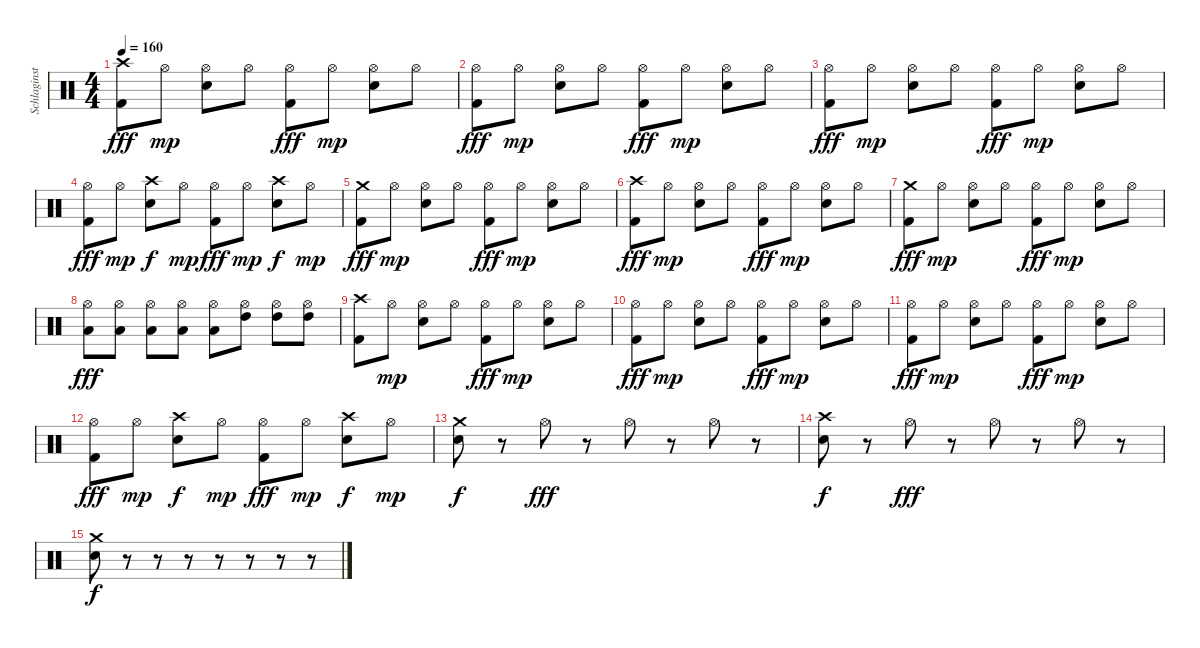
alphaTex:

\track ("Schlaginstrumente - Auswahl" "Schlaginst") {instrument percussion}
\staff {score}
\articulation defaults
\ts (4 4)
\tempo 160
\clef neutral
\ks c
("Crash high (hit)" "Kick (hit) 2").8{dy fff} "Hi-Hat (open)".8{dy mp} ("Hi-Hat (open)" "Electric Snare (hit)").8 "Hi-Hat (open)".8 ("Hi-Hat (open)" "Kick (hit) 2").8{dy fff} "Hi-Hat (open)".8{dy mp} ("Hi-Hat (open)" "Electric Snare (hit)").8 "Hi-Hat (open)".8 |
("Hi-Hat (open)" "Kick (hit) 2").8{dy fff} "Hi-Hat (open)".8{dy mp} ("Hi-Hat (open)" "Electric Snare (hit)").8 "Hi-Hat (open)".8 ("Hi-Hat (open)" "Kick (hit) 2").8{dy fff} "Hi-Hat (open)".8{dy mp} ("Hi-Hat (open)" "Electric Snare (hit)").8 "Hi-Hat (open)".8 |
("Hi-Hat (open)" "Kick (hit) 2").8{dy fff} "Hi-Hat (open)".8{dy mp} ("Hi-Hat (open)" "Electric Snare (hit)").8 "Hi-Hat (open)".8 ("Hi-Hat (open)" "Kick (hit) 2").8{dy fff} "Hi-Hat (open)".8{dy mp} ("Hi-Hat (open)" "Electric Snare (hit)").8 "Hi-Hat (open)".8 |
("Hi-Hat (open)" "Kick (hit) 2").8{dy fff} "Hi-Hat (open)".8{dy mp} ("Crash high (hit)" "Electric Snare (hit)").8{dy f} "Hi-Hat (open)".8{dy mp} ("Hi-Hat (open)" "Kick (hit) 2").8{dy fff} "Hi-Hat (open)".8{dy mp} ("Crash high (hit)" "Electric Snare (hit)").8{dy f} "Hi-Hat (open)".8{dy mp} |
("Crash medium (hit)" "Kick (hit) 2").8{dy fff} "Hi-Hat (open)".8{dy mp} ("Hi-Hat (open)" "Electric Snare (hit)").8 "Hi-Hat (open)".8 ("Hi-Hat (open)" "Kick (hit) 2").8{dy fff} "Hi-Hat (open)".8{dy mp} ("Hi-Hat (open)" "Electric Snare (hit)").8 "Hi-Hat (open)".8 |
("Crash high (hit)" "Kick (hit) 2").8{dy fff} "Hi-Hat (open)".8{dy mp} ("Hi-Hat (open)" "Electric Snare (hit)").8 "Hi-Hat (open)".8 ("Hi-Hat (open)" "Kick (hit) 2").8{dy fff} "Hi-Hat (open)".8{dy mp} ("Hi-Hat (open)" "Electric Snare (hit)").8 "Hi-Hat (open)".8 |
("Crash medium (hit)" "Kick (hit) 2").8{dy fff} "Hi-Hat (open)".8{dy mp} ("Hi-Hat (open)" "Electric Snare (hit)").8 "Hi-Hat (open)".8 ("Hi-Hat (open)" "Kick (hit) 2").8{dy fff} "Hi-Hat (open)".8{dy mp} ("Hi-Hat (open)" "Electric Snare (hit)").8 "Hi-Hat (open)".8 |
("Hi-Hat (open)" "Low Floor Tom (hit)").8{dy fff} ("Hi-Hat (open)" "Low Floor Tom (hit)").8 ("Hi-Hat (open)" "Low Floor Tom (hit)").8 ("Hi-Hat (open)" "Low Tom (hit)").8 ("Hi-Hat (open)" "Low Tom (hit)").8 ("Hi-Hat (open)" "High Tom (hit)").8 ("Hi-Hat (open)" "High Tom (hit)").8 ("Hi-Hat (open)" "High Tom (hit)").8 |
("Crash high (hit)" "Kick (hit) 2").8 "Hi-Hat (open)".8{dy mp} ("Hi-Hat (open)" "Electric Snare (hit)").8 "Hi-Hat (open)".8 ("Hi-Hat (open)" "Kick (hit) 2").8{dy fff} "Hi-Hat (open)".8{dy mp} ("Hi-Hat (open)" "Electric Snare (hit)").8 "Hi-Hat (open)".8 |
("Hi-Hat (open)" "Kick (hit) 2").8{dy fff} "Hi-Hat (open)".8{dy mp} ("Hi-Hat (open)" "Electric Snare (hit)").8 "Hi-Hat (open)".8 ("Hi-Hat (open)" "Kick (hit) 2").8{dy fff} "Hi-Hat (open)".8{dy mp} ("Hi-Hat (open)" "Electric Snare (hit)").8 "Hi-Hat (open)".8 |
("Hi-Hat (open)" "Kick (hit) 2").8{dy fff} "Hi-Hat (open)".8{dy mp} ("Hi-Hat (open)" "Electric Snare (hit)").8 "Hi-Hat (open)".8 ("Hi-Hat (open)" "Kick (hit) 2").8{dy fff} "Hi-Hat (open)".8{dy mp} ("Hi-Hat (open)" "Electric Snare (hit)").8 "Hi-Hat (open)".8 |
("Hi-Hat (open)" "Kick (hit) 2").8{dy fff} "Hi-Hat (open)".8{dy mp} ("Crash high (hit)" "Electric Snare (hit)").8{dy f} "Hi-Hat (open)".8{dy mp} ("Hi-Hat (open)" "Kick (hit) 2").8{dy fff} "Hi-Hat (open)".8{dy mp} ("Crash high (hit)" "Electric Snare (hit)").8{dy f} "Hi-Hat (open)".8{dy mp} |
("Crash medium (hit)" "Electric Snare (hit)").8{dy f} r.8 "Hi-Hat (open)".8{dy fff} r.8 "Hi-Hat (open)".8 r.8 "Hi-Hat (open)".8 r.8 |
("Crash high (hit)" "Electric Snare (hit)").8{dy f} r.8 "Hi-Hat (open)".8{dy fff} r.8 "Hi-Hat (open)".8 r.8 "Hi-Hat (open)".8 r.8 |
("Crash medium (hit)" "Electric Snare (hit)").8{dy f} r.8 r.8 r.8 r.8 r.8 r.8 r.8
